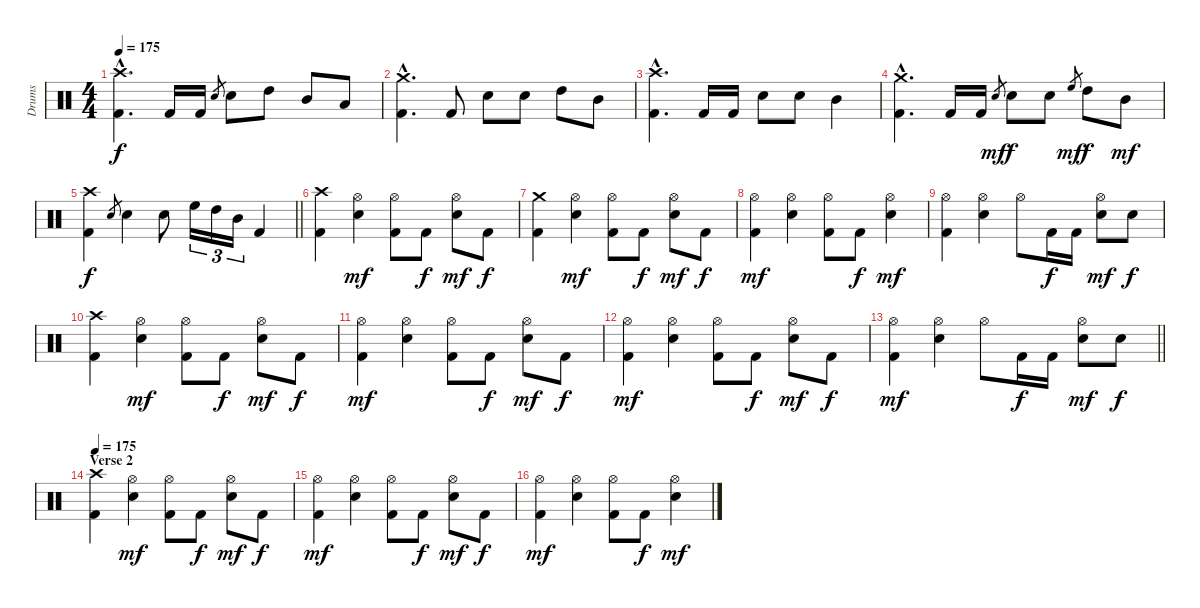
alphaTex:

\track ("Drums" "Drums") {instrument percussion}
\staff {score}
\articulation defaults
\ts (4 4)
\tempo 175
\clef neutral
\ks c
("Crash high (hit)"{hac} "Kick (hit) 2"{hac}).4{d dy f volume 14} "Kick (hit) 2".16 "Kick (hit) 2".16 "Electric Snare (hit)".8{gr} "Electric Snare (hit)".8 "High Tom (hit)".8 "Mid Tom (hit)".8 "Low Tom (hit)".8 |
("Crash medium (hit)"{hac} "Kick (hit) 2"{hac}).4{d} "Kick (hit) 2".8 "Electric Snare (hit)".8 "Electric Snare (hit)".8 "High Tom (hit)".8 "Mid Tom (hit)".8 |
("Crash high (hit)"{hac} "Kick (hit) 2"{hac}).4{d} "Kick (hit) 2".16 "Kick (hit) 2".16 "Electric Snare (hit)".8 "Electric Snare (hit)".8 "Mid Tom (hit)".4 |
("Crash medium (hit)"{hac} "Kick (hit) 2"{hac}).4{d} "Kick (hit) 2".16 "Kick (hit) 2".16 "Electric Snare (hit)".8{gr dy mf} "Electric Snare (hit)".8{dy f} "Electric Snare (hit)".8 "High Floor Tom (hit)".8{gr dy mf} "High Tom (hit)".8{dy f} "Mid Tom (hit)".8{dy mf} |
\barLineRight lightlight
("Crash high (hit)" "Kick (hit) 2").4{dy f} "Electric Snare (hit)".8{gr} "Electric Snare (hit)".4 "Electric Snare (hit)".8 "High Floor Tom (hit)".16{tu (3 2)} "High Tom (hit)".16{tu (3 2)} "Mid Tom (hit)".16{tu (3 2)} "Kick (hit) 2".4 |
("Crash high (hit)" "Kick (hit) 2").4 ("Hi-Hat (open)" "Electric Snare (hit)").4{dy mf} ("Hi-Hat (open)" "Kick (hit) 2").8 "Kick (hit) 2".8{dy f} ("Hi-Hat (open)" "Electric Snare (hit)").8{dy mf} "Kick (hit) 2".8{dy f} |
("Crash medium (hit)" "Kick (hit) 2").4 ("Hi-Hat (open)" "Electric Snare (hit)").4{dy mf} ("Hi-Hat (open)" "Kick (hit) 2").8 "Kick (hit) 2".8{dy f} ("Hi-Hat (open)" "Electric Snare (hit)").8{dy mf} "Kick (hit) 2".8{dy f} |
("Hi-Hat (open)" "Kick (hit) 2").4{dy mf} ("Hi-Hat (open)" "Electric Snare (hit)").4 ("Hi-Hat (open)" "Kick (hit) 2").8 "Kick (hit) 2".8{dy f} ("Hi-Hat (open)" "Electric Snare (hit)").4{dy mf} |
("Hi-Hat (open)" "Kick (hit) 2").4 ("Hi-Hat (open)" "Electric Snare (hit)").4 "Hi-Hat (open)".8 "Kick (hit) 2".16{dy f} "Kick (hit) 2".16 ("Hi-Hat (open)" "Electric Snare (hit)").8{dy mf} "Electric Snare (hit)".8{dy f} |
("Crash high (hit)" "Kick (hit) 2").4 ("Hi-Hat (open)" "Electric Snare (hit)").4{dy mf} ("Hi-Hat (open)" "Kick (hit) 2").8 "Kick (hit) 2".8{dy f} ("Hi-Hat (open)" "Electric Snare (hit)").8{dy mf} "Kick (hit) 2".8{dy f} |
("Hi-Hat (open)" "Kick (hit) 2").4{dy mf} ("Hi-Hat (open)" "Electric Snare (hit)").4 ("Hi-Hat (open)" "Kick (hit) 2").8 "Kick (hit) 2".8{dy f} ("Hi-Hat (open)" "Electric Snare (hit)").8{dy mf} "Kick (hit) 2".8{dy f} |
("Hi-Hat (open)" "Kick (hit) 2").4{dy mf} ("Hi-Hat (open)" "Electric Snare (hit)").4 ("Hi-Hat (open)" "Kick (hit) 2").8 "Kick (hit) 2".8{dy f} ("Hi-Hat (open)" "Electric Snare (hit)").8{dy mf} "Kick (hit) 2".8{dy f} |
\barLineRight lightlight
("Hi-Hat (open)" "Kick (hit) 2").4{dy mf} ("Hi-Hat (open)" "Electric Snare (hit)").4 "Hi-Hat (open)".8 "Kick (hit) 2".16{dy f} "Kick (hit) 2".16 ("Hi-Hat (open)" "Electric Snare (hit)").8{dy mf} "Electric Snare (hit)".8{dy f} |
\section ("" "Verse 2")
\tempo 175
("Crash high (hit)" "Kick (hit) 2").4 ("Hi-Hat (open)" "Electric Snare (hit)").4{dy mf} ("Hi-Hat (open)" "Kick (hit) 2").8 "Kick (hit) 2".8{dy f} ("Hi-Hat (open)" "Electric Snare (hit)").8{dy mf} "Kick (hit) 2".8{dy f} |
("Hi-Hat (open)" "Kick (hit) 2").4{dy mf} ("Hi-Hat (open)" "Electric Snare (hit)").4 ("Hi-Hat (open)" "Kick (hit) 2").8 "Kick (hit) 2".8{dy f} ("Hi-Hat (open)" "Electric Snare (hit)").8{dy mf} "Kick (hit) 2".8{dy f} |
("Hi-Hat (open)" "Kick (hit) 2").4{dy mf} ("Hi-Hat (open)" "Electric Snare (hit)").4 ("Hi-Hat (open)" "Kick (hit) 2").8 "Kick (hit) 2".8{dy f} ("Hi-Hat (open)" "Electric Snare (hit)").4{dy mf}
